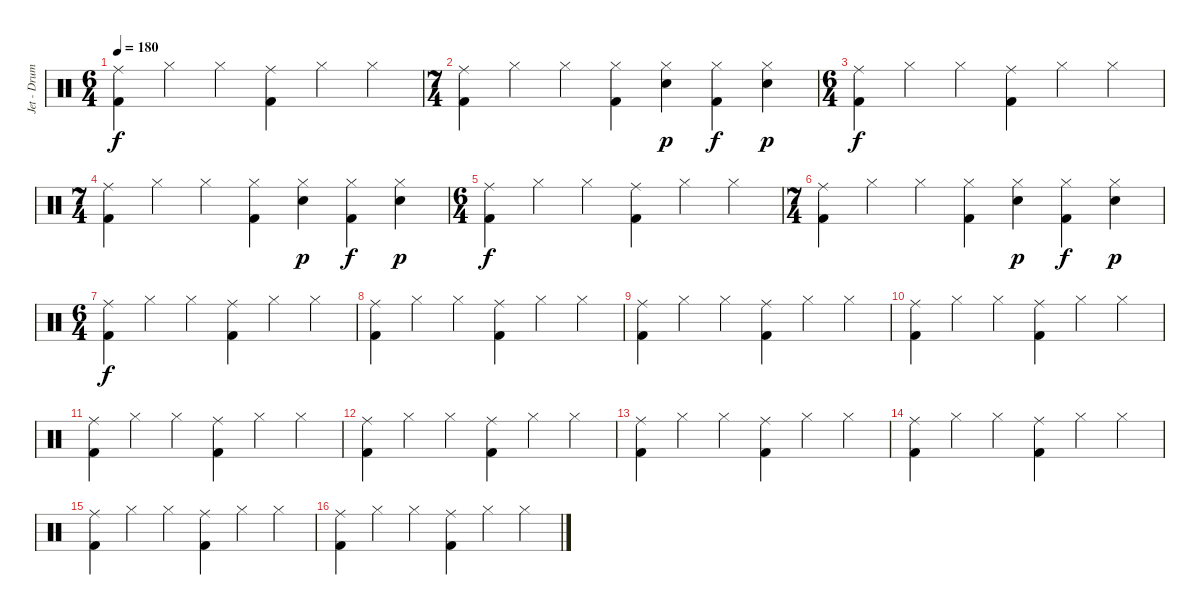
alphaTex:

\track ("Jet - Drums" "Jet - Drum") {instrument percussion}
\staff {score}
\articulation defaults
\ts (6 4)
\tempo 180
\clef neutral
\ks c
("Ride (middle)" "Kick (hit) 2").4{dy f} "Hi-Hat (closed)".4 "Hi-Hat (closed)".4 ("Ride (middle)" "Kick (hit) 2").4 "Hi-Hat (closed)".4 "Hi-Hat (closed)".4 |
\ts (7 4)
("Ride (middle)" "Kick (hit) 2").4 "Hi-Hat (closed)".4 "Hi-Hat (closed)".4 ("Hi-Hat (closed)" "Kick (hit) 2").4 ("Hi-Hat (closed)" "Electric Snare (hit)").4{dy p} ("Hi-Hat (closed)" "Kick (hit) 2").4{dy f} ("Hi-Hat (closed)" "Electric Snare (hit)").4{dy p} |
\ts (6 4)
("Ride (middle)" "Kick (hit) 2").4{dy f} "Hi-Hat (closed)".4 "Hi-Hat (closed)".4 ("Ride (middle)" "Kick (hit) 2").4 "Hi-Hat (closed)".4 "Hi-Hat (closed)".4 |
\ts (7 4)
("Ride (middle)" "Kick (hit) 2").4 "Hi-Hat (closed)".4 "Hi-Hat (closed)".4 ("Hi-Hat (closed)" "Kick (hit) 2").4 ("Hi-Hat (closed)" "Electric Snare (hit)").4{dy p} ("Hi-Hat (closed)" "Kick (hit) 2").4{dy f} ("Hi-Hat (closed)" "Electric Snare (hit)").4{dy p} |
\ts (6 4)
("Ride (middle)" "Kick (hit) 2").4{dy f} "Hi-Hat (closed)".4 "Hi-Hat (closed)".4 ("Ride (middle)" "Kick (hit) 2").4 "Hi-Hat (closed)".4 "Hi-Hat (closed)".4 |
\ts (7 4)
("Ride (middle)" "Kick (hit) 2").4 "Hi-Hat (closed)".4 "Hi-Hat (closed)".4 ("Hi-Hat (closed)" "Kick (hit) 2").4 ("Hi-Hat (closed)" "Electric Snare (hit)").4{dy p} ("Hi-Hat (closed)" "Kick (hit) 2").4{dy f} ("Hi-Hat (closed)" "Electric Snare (hit)").4{dy p} |
\ts (6 4)
("Ride (middle)" "Kick (hit) 2").4{dy f} "Hi-Hat (closed)".4 "Hi-Hat (closed)".4 ("Ride (middle)" "Kick (hit) 2").4 "Hi-Hat (closed)".4 "Hi-Hat (closed)".4 |
("Ride (middle)" "Kick (hit) 2").4 "Hi-Hat (closed)".4 "Hi-Hat (closed)".4 ("Ride (middle)" "Kick (hit) 2").4 "Hi-Hat (closed)".4 "Hi-Hat (closed)".4 |
("Ride (middle)" "Kick (hit) 2").4 "Hi-Hat (closed)".4 "Hi-Hat (closed)".4 ("Ride (middle)" "Kick (hit) 2").4 "Hi-Hat (closed)".4 "Hi-Hat (closed)".4 |
("Ride (middle)" "Kick (hit) 2").4 "Hi-Hat (closed)".4 "Hi-Hat (closed)".4 ("Ride (middle)" "Kick (hit) 2").4 "Hi-Hat (closed)".4 "Hi-Hat (closed)".4 |
("Ride (middle)" "Kick (hit) 2").4 "Hi-Hat (closed)".4 "Hi-Hat (closed)".4 ("Ride (middle)" "Kick (hit) 2").4 "Hi-Hat (closed)".4 "Hi-Hat (closed)".4 |
("Ride (middle)" "Kick (hit) 2").4 "Hi-Hat (closed)".4 "Hi-Hat (closed)".4 ("Ride (middle)" "Kick (hit) 2").4 "Hi-Hat (closed)".4 "Hi-Hat (closed)".4 |
("Ride (middle)" "Kick (hit) 2").4 "Hi-Hat (closed)".4 "Hi-Hat (closed)".4 ("Ride (middle)" "Kick (hit) 2").4 "Hi-Hat (closed)".4 "Hi-Hat (closed)".4 |
("Ride (middle)" "Kick (hit) 2").4 "Hi-Hat (closed)".4 "Hi-Hat (closed)".4 ("Ride (middle)" "Kick (hit) 2").4 "Hi-Hat (closed)".4 "Hi-Hat (closed)".4 |
("Ride (middle)" "Kick (hit) 2").4 "Hi-Hat (closed)".4 "Hi-Hat (closed)".4 ("Ride (middle)" "Kick (hit) 2").4 "Hi-Hat (closed)".4 "Hi-Hat (closed)".4 |
("Ride (middle)" "Kick (hit) 2").4 "Hi-Hat (closed)".4 "Hi-Hat (closed)".4 ("Ride (middle)" "Kick (hit) 2").4 "Hi-Hat (closed)".4 "Hi-Hat (closed)".4
